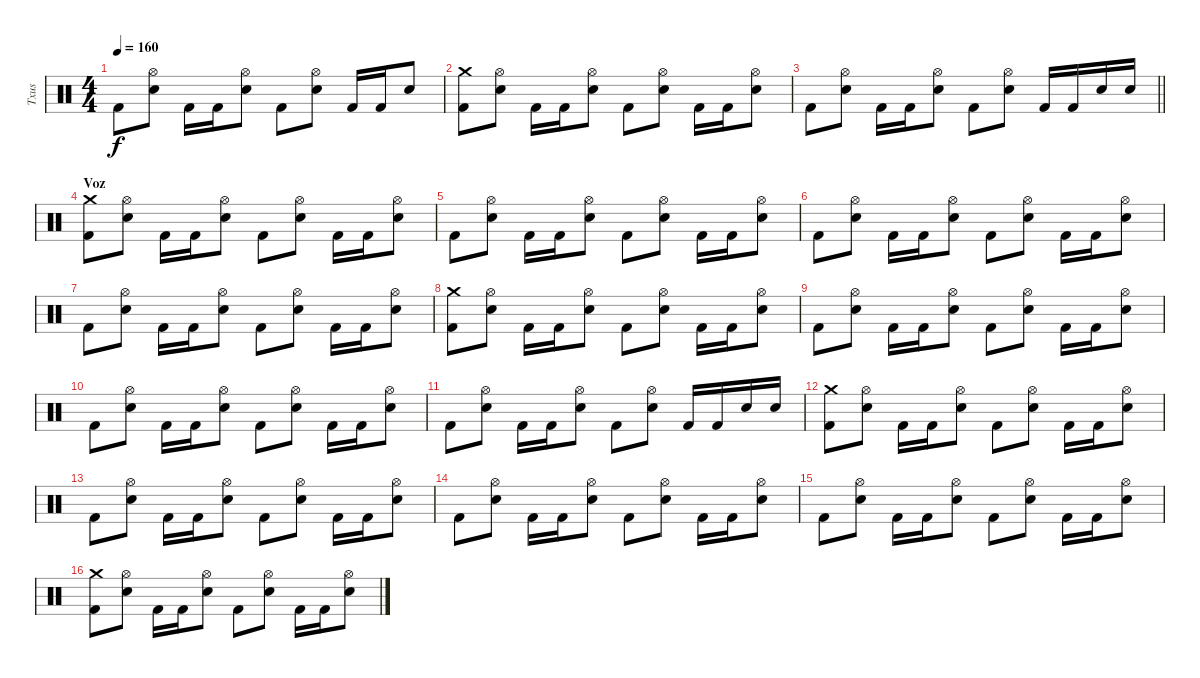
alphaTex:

\track ("Txus" "Txus") {instrument percussion}
\staff {score}
\articulation defaults
\ts (4 4)
\tempo 160
\clef neutral
\ks c "Kick (hit) 2".8{dy f}
("Hi-Hat (open)" "Snare (hit) 2").8 "Kick (hit) 2".16 "Kick (hit) 2".16 ("Hi-Hat (open)" "Snare (hit) 2").8 "Kick (hit) 2".8 ("Hi-Hat (open)" "Snare (hit) 2").8 "Kick (hit) 2".16 "Kick (hit) 2".16 "Snare (hit) 2".8 |
("Crash medium (hit)" "Kick (hit) 2").8 ("Hi-Hat (open)" "Snare (hit) 2").8 "Kick (hit) 2".16 "Kick (hit) 2".16 ("Hi-Hat (open)" "Snare (hit) 2").8 "Kick (hit) 2".8 ("Hi-Hat (open)" "Snare (hit) 2").8 "Kick (hit) 2".16 "Kick (hit) 2".16 ("Hi-Hat (open)" "Snare (hit) 2").8 |
\barLineRight lightlight "Kick (hit) 2".8
("Hi-Hat (open)" "Snare (hit) 2").8 "Kick (hit) 2".16 "Kick (hit) 2".16 ("Hi-Hat (open)" "Snare (hit) 2").8 "Kick (hit) 2".8 ("Hi-Hat (open)" "Snare (hit) 2").8 "Kick (hit) 2".16 "Kick (hit) 2".16 "Snare (hit) 2".16 "Snare (hit) 2".16 |
\section ("" "Voz")
("Crash medium (hit)" "Kick (hit) 2").8 ("Hi-Hat (open)" "Snare (hit) 2").8 "Kick (hit) 2".16 "Kick (hit) 2".16 ("Hi-Hat (open)" "Snare (hit) 2").8 "Kick (hit) 2".8 ("Hi-Hat (open)" "Snare (hit) 2").8 "Kick (hit) 2".16 "Kick (hit) 2".16 ("Hi-Hat (open)" "Snare (hit) 2").8 |
"Kick (hit) 2".8 ("Hi-Hat (open)" "Snare (hit) 2").8 "Kick (hit) 2".16 "Kick (hit) 2".16 ("Hi-Hat (open)" "Snare (hit) 2").8 "Kick (hit) 2".8 ("Hi-Hat (open)" "Snare (hit) 2").8 "Kick (hit) 2".16 "Kick (hit) 2".16 ("Hi-Hat (open)" "Snare (hit) 2").8 |
"Kick (hit) 2".8 ("Hi-Hat (open)" "Snare (hit) 2").8 "Kick (hit) 2".16 "Kick (hit) 2".16 ("Hi-Hat (open)" "Snare (hit) 2").8 "Kick (hit) 2".8 ("Hi-Hat (open)" "Snare (hit) 2").8 "Kick (hit) 2".16 "Kick (hit) 2".16 ("Hi-Hat (open)" "Snare (hit) 2").8 |
"Kick (hit) 2".8 ("Hi-Hat (open)" "Snare (hit) 2").8 "Kick (hit) 2".16 "Kick (hit) 2".16 ("Hi-Hat (open)" "Snare (hit) 2").8 "Kick (hit) 2".8 ("Hi-Hat (open)" "Snare (hit) 2").8 "Kick (hit) 2".16 "Kick (hit) 2".16 ("Hi-Hat (open)" "Snare (hit) 2").8 |
("Crash medium (hit)" "Kick (hit) 2").8 ("Hi-Hat (open)" "Snare (hit) 2").8 "Kick (hit) 2".16 "Kick (hit) 2".16 ("Hi-Hat (open)" "Snare (hit) 2").8 "Kick (hit) 2".8 ("Hi-Hat (open)" "Snare (hit) 2").8 "Kick (hit) 2".16 "Kick (hit) 2".16 ("Hi-Hat (open)" "Snare (hit) 2").8 |
"Kick (hit) 2".8 ("Hi-Hat (open)" "Snare (hit) 2").8 "Kick (hit) 2".16 "Kick (hit) 2".16 ("Hi-Hat (open)" "Snare (hit) 2").8 "Kick (hit) 2".8 ("Hi-Hat (open)" "Snare (hit) 2").8 "Kick (hit) 2".16 "Kick (hit) 2".16 ("Hi-Hat (open)" "Snare (hit) 2").8 |
"Kick (hit) 2".8 ("Hi-Hat (open)" "Snare (hit) 2").8 "Kick (hit) 2".16 "Kick (hit) 2".16 ("Hi-Hat (open)" "Snare (hit) 2").8 "Kick (hit) 2".8 ("Hi-Hat (open)" "Snare (hit) 2").8 "Kick (hit) 2".16 "Kick (hit) 2".16 ("Hi-Hat (open)" "Snare (hit) 2").8 |
"Kick (hit) 2".8 ("Hi-Hat (open)" "Snare (hit) 2").8 "Kick (hit) 2".16 "Kick (hit) 2".16 ("Hi-Hat (open)" "Snare (hit) 2").8 "Kick (hit) 2".8 ("Hi-Hat (open)" "Snare (hit) 2").8 "Kick (hit) 2".16 "Kick (hit) 2".16 "Snare (hit) 2".16 "Snare (hit) 2".16 |
("Crash medium (hit)" "Kick (hit) 2").8 ("Hi-Hat (open)" "Snare (hit) 2").8 "Kick (hit) 2".16 "Kick (hit) 2".16 ("Hi-Hat (open)" "Snare (hit) 2").8 "Kick (hit) 2".8 ("Hi-Hat (open)" "Snare (hit) 2").8 "Kick (hit) 2".16 "Kick (hit) 2".16 ("Hi-Hat (open)" "Snare (hit) 2").8 |
"Kick (hit) 2".8 ("Hi-Hat (open)" "Snare (hit) 2").8 "Kick (hit) 2".16 "Kick (hit) 2".16 ("Hi-Hat (open)" "Snare (hit) 2").8 "Kick (hit) 2".8 ("Hi-Hat (open)" "Snare (hit) 2").8 "Kick (hit) 2".16 "Kick (hit) 2".16 ("Hi-Hat (open)" "Snare (hit) 2").8 |
"Kick (hit) 2".8 ("Hi-Hat (open)" "Snare (hit) 2").8 "Kick (hit) 2".16 "Kick (hit) 2".16 ("Hi-Hat (open)" "Snare (hit) 2").8 "Kick (hit) 2".8 ("Hi-Hat (open)" "Snare (hit) 2").8 "Kick (hit) 2".16 "Kick (hit) 2".16 ("Hi-Hat (open)" "Snare (hit) 2").8 |
"Kick (hit) 2".8 ("Hi-Hat (open)" "Snare (hit) 2").8 "Kick (hit) 2".16 "Kick (hit) 2".16 ("Hi-Hat (open)" "Snare (hit) 2").8 "Kick (hit) 2".8 ("Hi-Hat (open)" "Snare (hit) 2").8 "Kick (hit) 2".16 "Kick (hit) 2".16 ("Hi-Hat (open)" "Snare (hit) 2").8 |
("Crash medium (hit)" "Kick (hit) 2").8 ("Hi-Hat (open)" "Snare (hit) 2").8 "Kick (hit) 2".16 "Kick (hit) 2".16 ("Hi-Hat (open)" "Snare (hit) 2").8 "Kick (hit) 2".8 ("Hi-Hat (open)" "Snare (hit) 2").8 "Kick (hit) 2".16 "Kick (hit) 2".16 ("Hi-Hat (open)" "Snare (hit) 2").8
